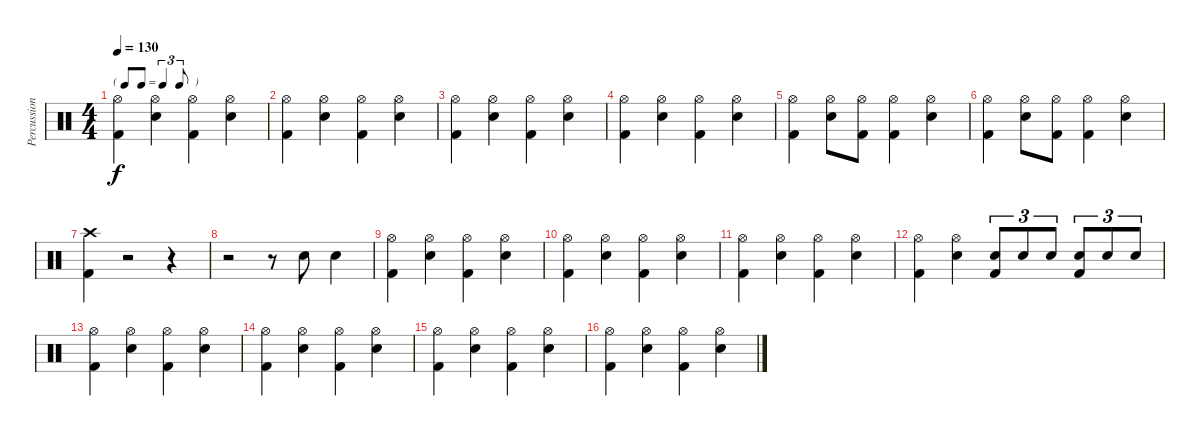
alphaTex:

\track ("Percussion" "Percussion") {instrument percussion}
\staff {score}
\articulation defaults
\ts (4 4)
\tf triplet8th
\tempo 130
\clef neutral
\ks c
("Hi-Hat (open)" "Kick (hit) 2").4{dy f} ("Hi-Hat (open)" "Hand Clap (hit)").4 ("Hi-Hat (open)" "Kick (hit) 2").4 ("Hi-Hat (open)" "Hand Clap (hit)").4 |
("Hi-Hat (open)" "Kick (hit) 2").4 ("Hi-Hat (open)" "Hand Clap (hit)").4 ("Hi-Hat (open)" "Kick (hit) 2").4 ("Hi-Hat (open)" "Hand Clap (hit)").4 |
("Hi-Hat (open)" "Kick (hit) 2").4 ("Hi-Hat (open)" "Hand Clap (hit)").4 ("Hi-Hat (open)" "Kick (hit) 2").4 ("Hi-Hat (open)" "Hand Clap (hit)").4 |
("Hi-Hat (open)" "Kick (hit) 2").4 ("Hi-Hat (open)" "Hand Clap (hit)").4 ("Hi-Hat (open)" "Kick (hit) 2").4 ("Hi-Hat (open)" "Hand Clap (hit)").4 |
("Hi-Hat (open)" "Kick (hit) 2").4 ("Hi-Hat (open)" "Hand Clap (hit)").8 ("Hi-Hat (open)" "Kick (hit) 2").8 ("Hi-Hat (open)" "Kick (hit) 2").4 ("Hi-Hat (open)" "Hand Clap (hit)").4 |
("Hi-Hat (open)" "Kick (hit) 2").4 ("Hi-Hat (open)" "Hand Clap (hit)").8 ("Hi-Hat (open)" "Kick (hit) 2").8 ("Hi-Hat (open)" "Kick (hit) 2").4 ("Hi-Hat (open)" "Hand Clap (hit)").4 |
("Crash high (hit)" "Kick (hit) 2").4 r.2 r.4 |
r.2 r.8 "Hand Clap (hit)".8 "Hand Clap (hit)".4 |
("Hi-Hat (open)" "Kick (hit) 2").4 ("Hi-Hat (open)" "Hand Clap (hit)").4 ("Hi-Hat (open)" "Kick (hit) 2").4 ("Hi-Hat (open)" "Hand Clap (hit)").4 |
("Hi-Hat (open)" "Kick (hit) 2").4 ("Hi-Hat (open)" "Hand Clap (hit)").4 ("Hi-Hat (open)" "Kick (hit) 2").4 ("Hi-Hat (open)" "Hand Clap (hit)").4 |
("Hi-Hat (open)" "Kick (hit) 2").4 ("Hi-Hat (open)" "Hand Clap (hit)").4 ("Hi-Hat (open)" "Kick (hit) 2").4 ("Hi-Hat (open)" "Hand Clap (hit)").4 |
("Hi-Hat (open)" "Kick (hit) 2").4 ("Hi-Hat (open)" "Snare (hit) 2").4 ("Snare (hit) 2" "Kick (hit) 2").8{tu (3 2)} "Snare (hit) 2".8{tu (3 2)} "Snare (hit) 2".8{tu (3 2)} ("Snare (hit) 2" "Kick (hit) 2").8{tu (3 2)} "Snare (hit) 2".8{tu (3 2)} "Snare (hit) 2".8{tu (3 2)} |
("Hi-Hat (open)" "Kick (hit) 2").4 ("Hi-Hat (open)" "Hand Clap (hit)").4 ("Hi-Hat (open)" "Kick (hit) 2").4 ("Hi-Hat (open)" "Hand Clap (hit)").4 |
("Hi-Hat (open)" "Kick (hit) 2").4 ("Hi-Hat (open)" "Hand Clap (hit)").4 ("Hi-Hat (open)" "Kick (hit) 2").4 ("Hi-Hat (open)" "Hand Clap (hit)").4 |
("Hi-Hat (open)" "Kick (hit) 2").4 ("Hi-Hat (open)" "Hand Clap (hit)").4 ("Hi-Hat (open)" "Kick (hit) 2").4 ("Hi-Hat (open)" "Hand Clap (hit)").4 |
("Hi-Hat (open)" "Kick (hit) 2").4 ("Hi-Hat (open)" "Hand Clap (hit)").4 ("Hi-Hat (open)" "Kick (hit) 2").4 ("Hi-Hat (open)" "Hand Clap (hit)").4
